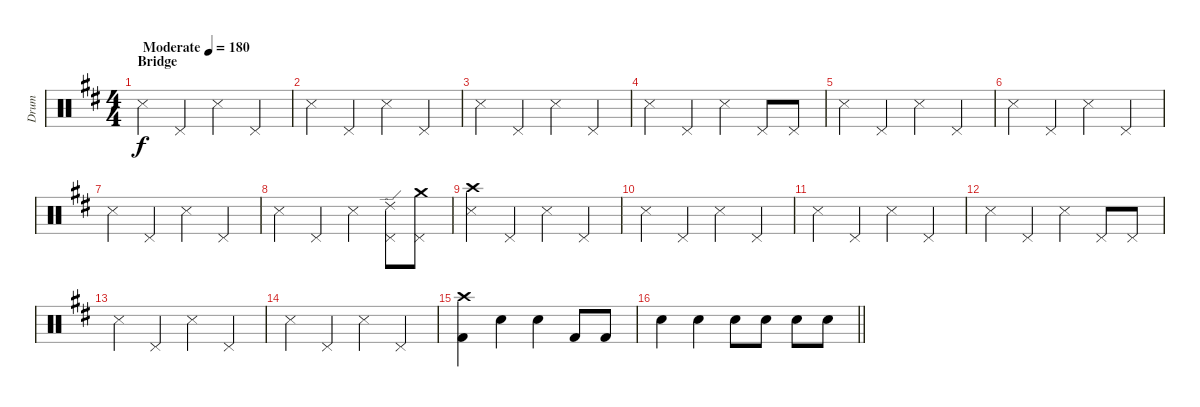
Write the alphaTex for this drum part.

\track ("Drum" "Drum") {instrument percussion}
\staff {score}
\articulation defaults
\ts (4 4)
\section ("" "Bridge")
\tempo (180 "Moderate")
\clef neutral
\ks d "Snare (side stick) 3".4{dy f} "Pedal Hi-Hat (hit)".4 "Snare (side stick) 3".4 "Pedal Hi-Hat (hit)".4
|
"Snare (side stick) 3".4 "Pedal Hi-Hat (hit)".4 "Snare (side stick) 3".4 "Pedal Hi-Hat (hit)".4 |
"Snare (side stick) 3".4 "Pedal Hi-Hat (hit)".4 "Snare (side stick) 3".4 "Pedal Hi-Hat (hit)".4 |
"Snare (side stick) 3".4 "Pedal Hi-Hat (hit)".4 "Snare (side stick) 3".4 "Pedal Hi-Hat (hit)".8 "Pedal Hi-Hat (hit)".8 |
"Snare (side stick) 3".4 "Pedal Hi-Hat (hit)".4 "Snare (side stick) 3".4 "Pedal Hi-Hat (hit)".4 |
"Snare (side stick) 3".4 "Pedal Hi-Hat (hit)".4 "Snare (side stick) 3".4 "Pedal Hi-Hat (hit)".4 |
"Snare (side stick) 3".4 "Pedal Hi-Hat (hit)".4 "Snare (side stick) 3".4 "Pedal Hi-Hat (hit)".4 |
"Snare (side stick) 3".4 "Pedal Hi-Hat (hit)".4 "Snare (side stick) 3".4 ("Pedal Hi-Hat (hit)" "Ride (edge) 2").8 ("Pedal Hi-Hat (hit)" "Crash medium (hit)").8 |
("Snare (side stick) 3" "Crash high (hit)").4 "Pedal Hi-Hat (hit)".4 "Snare (side stick) 3".4 "Pedal Hi-Hat (hit)".4 |
"Snare (side stick) 3".4 "Pedal Hi-Hat (hit)".4 "Snare (side stick) 3".4 "Pedal Hi-Hat (hit)".4 |
"Snare (side stick) 3".4 "Pedal Hi-Hat (hit)".4 "Snare (side stick) 3".4 "Pedal Hi-Hat (hit)".4 |
"Snare (side stick) 3".4 "Pedal Hi-Hat (hit)".4 "Snare (side stick) 3".4 "Pedal Hi-Hat (hit)".8 "Pedal Hi-Hat (hit)".8 |
"Snare (side stick) 3".4 "Pedal Hi-Hat (hit)".4 "Snare (side stick) 3".4 "Pedal Hi-Hat (hit)".4 |
"Snare (side stick) 3".4 "Pedal Hi-Hat (hit)".4 "Snare (side stick) 3".4 "Pedal Hi-Hat (hit)".4 |
("Crash high (hit)" "Kick (hit) 2").4 "Snare (hit) 2".4 "Snare (hit) 2".4 "Kick (hit) 2".8 "Kick (hit) 2".8 |
\barLineRight lightlight "Snare (hit) 2".4 "Snare (hit) 2".4 "Snare (hit) 2".8 "Snare (hit) 2".8 "Snare (hit) 2".8 "Snare (hit) 2".8
